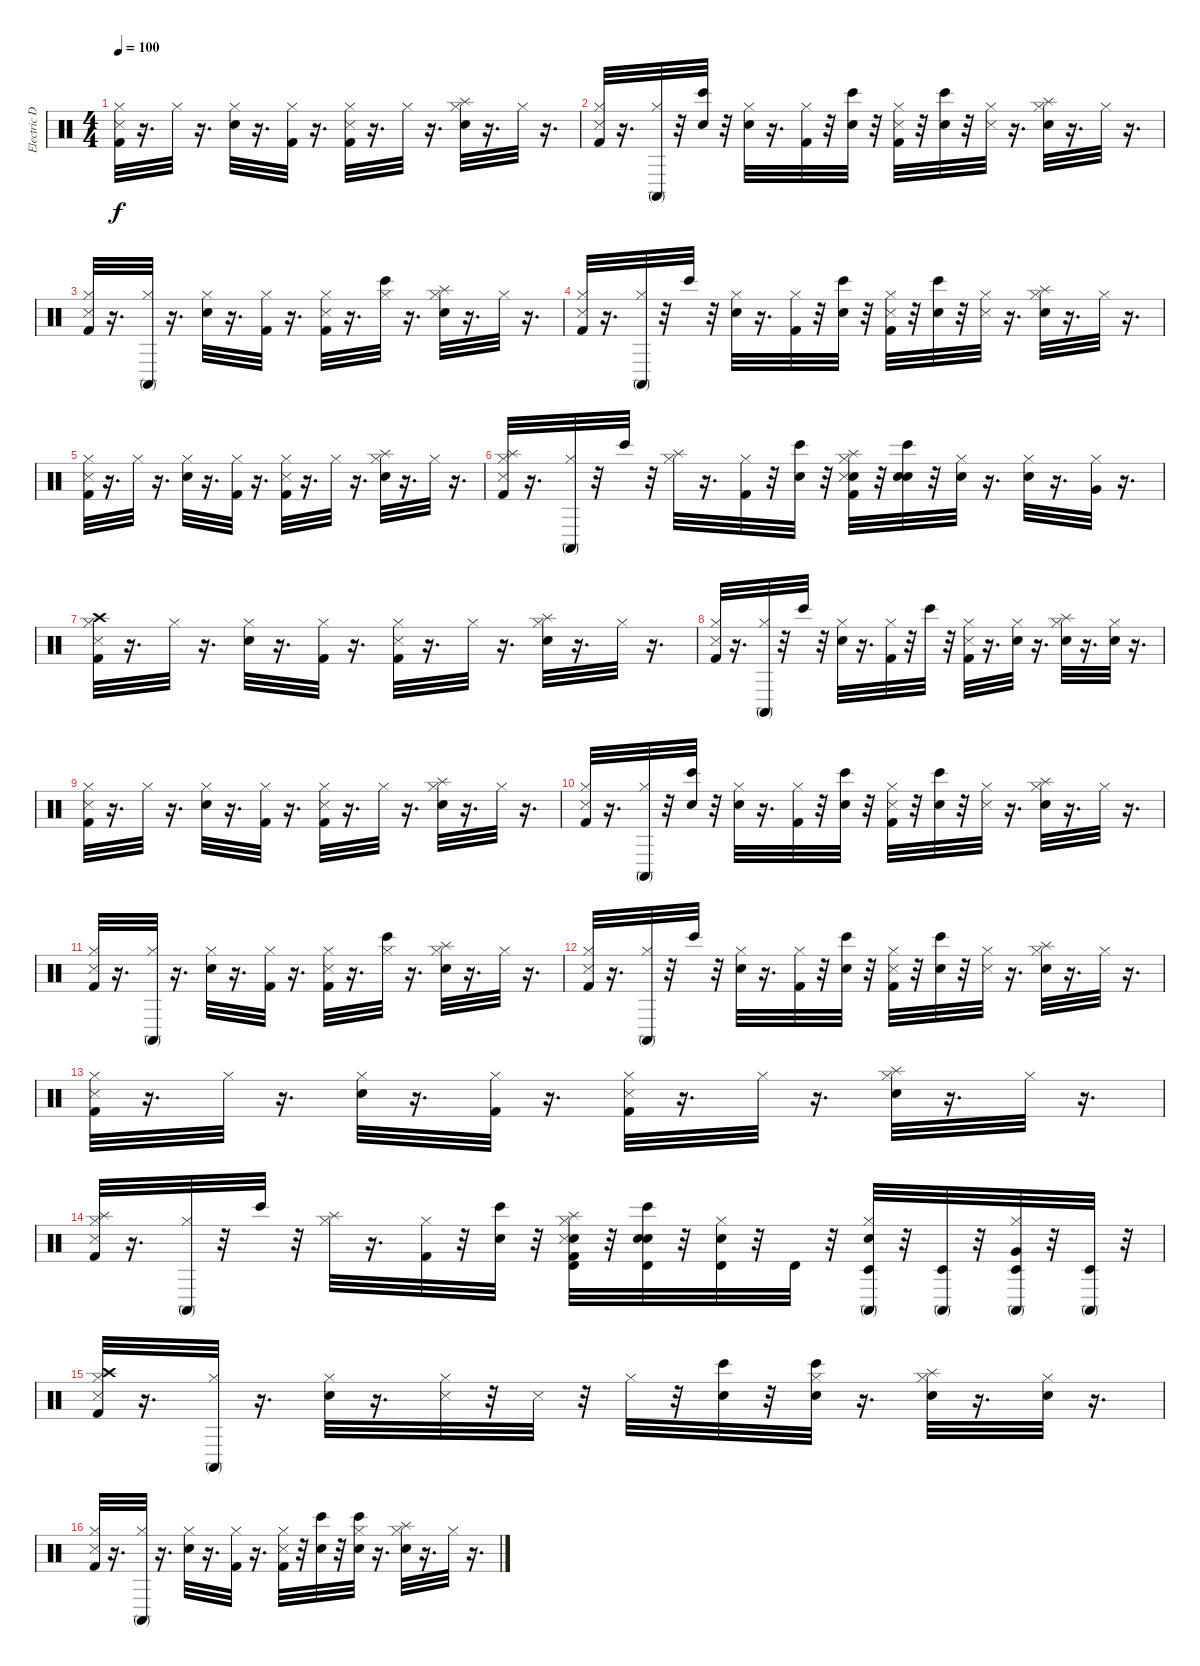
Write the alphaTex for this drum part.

\track ("Electric Drums" "Electric D") {instrument percussion}
\staff {score}
\articulation defaults
\ts (4 4)
\tempo 100
\clef neutral
\ks c
("Kick (hit) 2" "Hi-Hat (closed)" "Metronome (hit)").32{dy f} r.16{d} "Hi-Hat (closed)".32 r.16{d} ("Electric Snare (hit)" "Hi-Hat (closed)").32 r.16{d} ("Kick (hit) 2" "Hi-Hat (closed)").32 r.16{d} ("Kick (hit) 2" "Hi-Hat (closed)" "Metronome (hit)").32 r.16{d} "Hi-Hat (closed)".32 r.16{d} ("Electric Snare (hit)" "Hi-Hat (closed)" "Splash (hit)").32 r.16{d} "Hi-Hat (closed)".32 r.16{d} |
("Kick (hit) 2" "Hi-Hat (closed)" "Metronome (hit)").32 r.16{d} ("Hi-Hat (closed)" "Conga high (mute)").32 r.32 ("Snare (hit)" "Bongo High (hit)").32 r.32 ("Electric Snare (hit)" "Hi-Hat (closed)").32 r.16{d} ("Kick (hit) 2" "Hi-Hat (closed)").32 r.32 ("Snare (hit)" "Bongo High (hit)").32 r.32 ("Kick (hit) 2" "Hi-Hat (closed)" "Metronome (hit)").32 r.32 ("Snare (hit)" "Bongo High (hit)").32 r.32 ("Hi-Hat (closed)" "Metronome (hit)").32 r.16{d} ("Electric Snare (hit)" "Hi-Hat (closed)" "Splash (hit)").32 r.16{d} "Hi-Hat (closed)".32 r.16{d} |
("Kick (hit) 2" "Hi-Hat (closed)" "Metronome (hit)").32 r.16{d} ("Hi-Hat (closed)" "Conga high (mute)").32 r.16{d} ("Electric Snare (hit)" "Hi-Hat (closed)").32 r.16{d} ("Kick (hit) 2" "Hi-Hat (closed)").32 r.16{d} ("Kick (hit) 2" "Hi-Hat (closed)" "Metronome (hit)").32 r.16{d} ("Hi-Hat (closed)" "Bongo High (hit)").32 r.16{d} ("Electric Snare (hit)" "Hi-Hat (closed)" "Splash (hit)").32 r.16{d} "Hi-Hat (closed)".32 r.16{d} |
("Kick (hit) 2" "Hi-Hat (closed)" "Metronome (hit)").32 r.16{d} ("Hi-Hat (closed)" "Conga high (mute)").32 r.32 "Bongo High (hit)".32 r.32 ("Electric Snare (hit)" "Hi-Hat (closed)").32 r.16{d} ("Kick (hit) 2" "Hi-Hat (closed)").32 r.32 ("Snare (hit)" "Bongo High (hit)").32 r.32 ("Kick (hit) 2" "Hi-Hat (closed)" "Metronome (hit)").32 r.32 ("Snare (hit)" "Bongo High (hit)").32 r.32 ("Hi-Hat (closed)" "Metronome (hit)").32 r.16{d} ("Electric Snare (hit)" "Hi-Hat (closed)" "Splash (hit)").32 r.16{d} "Hi-Hat (closed)".32 r.16{d} |
("Kick (hit) 2" "Hi-Hat (closed)" "Metronome (hit)").32 r.16{d} "Hi-Hat (closed)".32 r.16{d} ("Electric Snare (hit)" "Hi-Hat (closed)").32 r.16{d} ("Kick (hit) 2" "Hi-Hat (closed)").32 r.16{d} ("Kick (hit) 2" "Hi-Hat (closed)" "Metronome (hit)").32 r.16{d} "Hi-Hat (closed)".32 r.16{d} ("Electric Snare (hit)" "Hi-Hat (closed)" "Splash (hit)").32 r.16{d} "Hi-Hat (closed)".32 r.16{d} |
("Kick (hit) 2" "Hi-Hat (closed)" "Splash (hit)" "Metronome (hit)").32 r.16{d} ("Hi-Hat (closed)" "Conga high (mute)").32 r.32 "Bongo High (hit)".32 r.32 ("Hi-Hat (closed)" "Splash (hit)").32 r.16{d} ("Kick (hit) 2" "Hi-Hat (closed)").32 r.32 ("Snare (hit)" "Bongo High (hit)").32 r.32 ("Snare (hit) 2" "Kick (hit) 2" "Hi-Hat (closed)" "Splash (hit)" "Metronome (hit)").32 r.32 ("Snare (hit) 2" "Snare (hit)" "Bongo High (hit)").32 r.32 ("Snare (hit) 2" "Hi-Hat (closed)").32 r.16{d} ("Electric Snare (hit)" "Hi-Hat (closed)").32 r.16{d} ("Very Low Tom (hit)" "Hi-Hat (closed)").32 r.16{d} |
("Crash high (hit)" "Kick (hit) 2" "Hi-Hat (closed)" "Metronome (hit)").32 r.16{d} "Hi-Hat (closed)".32 r.16{d} ("Electric Snare (hit)" "Hi-Hat (closed)").32 r.16{d} ("Kick (hit) 2" "Hi-Hat (closed)").32 r.16{d} ("Kick (hit) 2" "Hi-Hat (closed)" "Metronome (hit)").32 r.16{d} "Hi-Hat (closed)".32 r.16{d} ("Electric Snare (hit)" "Hi-Hat (closed)" "Splash (hit)").32 r.16{d} "Hi-Hat (closed)".32 r.16{d} |
("Kick (hit) 2" "Hi-Hat (closed)" "Metronome (hit)").32 r.16{d} ("Hi-Hat (closed)" "Conga high (mute)").32 r.32 "Bongo High (hit)".32 r.32 ("Electric Snare (hit)" "Hi-Hat (closed)").32 r.16{d} ("Kick (hit) 2" "Hi-Hat (closed)").32 r.32 "Bongo High (hit)".32 r.32 ("Kick (hit) 2" "Hi-Hat (closed)" "Metronome (hit)").32 r.16{d} ("Snare (hit) 2" "Hi-Hat (closed)").32 r.16{d} ("Electric Snare (hit)" "Hi-Hat (closed)" "Splash (hit)").32 r.16{d} ("Snare (hit) 2" "Hi-Hat (closed)").32 r.16{d} |
("Kick (hit) 2" "Hi-Hat (closed)" "Metronome (hit)").32 r.16{d} "Hi-Hat (closed)".32 r.16{d} ("Electric Snare (hit)" "Hi-Hat (closed)").32 r.16{d} ("Kick (hit) 2" "Hi-Hat (closed)").32 r.16{d} ("Kick (hit) 2" "Hi-Hat (closed)" "Metronome (hit)").32 r.16{d} "Hi-Hat (closed)".32 r.16{d} ("Electric Snare (hit)" "Hi-Hat (closed)" "Splash (hit)").32 r.16{d} "Hi-Hat (closed)".32 r.16{d} |
("Kick (hit) 2" "Hi-Hat (closed)" "Metronome (hit)").32 r.16{d} ("Hi-Hat (closed)" "Conga high (mute)").32 r.32 ("Snare (hit)" "Bongo High (hit)").32 r.32 ("Electric Snare (hit)" "Hi-Hat (closed)").32 r.16{d} ("Kick (hit) 2" "Hi-Hat (closed)").32 r.32 ("Snare (hit)" "Bongo High (hit)").32 r.32 ("Kick (hit) 2" "Hi-Hat (closed)" "Metronome (hit)").32 r.32 ("Snare (hit)" "Bongo High (hit)").32 r.32 ("Hi-Hat (closed)" "Metronome (hit)").32 r.16{d} ("Electric Snare (hit)" "Hi-Hat (closed)" "Splash (hit)").32 r.16{d} "Hi-Hat (closed)".32 r.16{d} |
("Kick (hit) 2" "Hi-Hat (closed)" "Metronome (hit)").32 r.16{d} ("Hi-Hat (closed)" "Conga high (mute)").32 r.16{d} ("Electric Snare (hit)" "Hi-Hat (closed)").32 r.16{d} ("Kick (hit) 2" "Hi-Hat (closed)").32 r.16{d} ("Kick (hit) 2" "Hi-Hat (closed)" "Metronome (hit)").32 r.16{d} ("Hi-Hat (closed)" "Bongo High (hit)").32 r.16{d} ("Electric Snare (hit)" "Hi-Hat (closed)" "Splash (hit)").32 r.16{d} "Hi-Hat (closed)".32 r.16{d} |
("Kick (hit) 2" "Hi-Hat (closed)" "Metronome (hit)").32 r.16{d} ("Hi-Hat (closed)" "Conga high (mute)").32 r.32 "Bongo High (hit)".32 r.32 ("Electric Snare (hit)" "Hi-Hat (closed)").32 r.16{d} ("Kick (hit) 2" "Hi-Hat (closed)").32 r.32 ("Snare (hit)" "Bongo High (hit)").32 r.32 ("Kick (hit) 2" "Hi-Hat (closed)" "Metronome (hit)").32 r.32 ("Snare (hit)" "Bongo High (hit)").32 r.32 ("Hi-Hat (closed)" "Metronome (hit)").32 r.16{d} ("Electric Snare (hit)" "Hi-Hat (closed)" "Splash (hit)").32 r.16{d} "Hi-Hat (closed)".32 r.16{d} |
("Kick (hit) 2" "Hi-Hat (closed)" "Metronome (hit)").32 r.16{d} "Hi-Hat (closed)".32 r.16{d} ("Electric Snare (hit)" "Hi-Hat (closed)").32 r.16{d} ("Kick (hit) 2" "Hi-Hat (closed)").32 r.16{d} ("Kick (hit) 2" "Hi-Hat (closed)" "Metronome (hit)").32 r.16{d} "Hi-Hat (closed)".32 r.16{d} ("Electric Snare (hit)" "Hi-Hat (closed)" "Splash (hit)").32 r.16{d} "Hi-Hat (closed)".32 r.16{d} |
("Kick (hit) 2" "Hi-Hat (closed)" "Splash (hit)" "Metronome (hit)").32 r.16{d} ("Hi-Hat (closed)" "Conga high (mute)").32 r.32 "Bongo High (hit)".32 r.32 ("Hi-Hat (closed)" "Splash (hit)").32 r.16{d} ("Kick (hit) 2" "Hi-Hat (closed)").32 r.32 ("Snare (hit)" "Bongo High (hit)").32 r.32 ("Snare (hit) 2" "Kick (hit) 2" "Hi-Hat (closed)" "Splash (hit)" "Metronome (hit)" "Timbale high (hit)").32 r.32 ("Snare (hit) 2" "Snare (hit)" "Bongo High (hit)" "Timbale high (hit)").32 r.32 ("Snare (hit) 2" "Hi-Hat (closed)" "Timbale high (hit)").32 r.32 "Timbale high (hit)".32 r.32 ("Electric Snare (hit)" "Hi-Hat (closed)" "Conga high (mute)" "Timbale low (hit)").32 r.32 ("Conga high (mute)" "Timbale low (hit)").32 r.32 ("Very Low Tom (hit)" "Hi-Hat (closed)" "Conga high (mute)" "Timbale low (hit)").32 r.32 ("Conga high (mute)" "Timbale low (hit)").32 r.32 |
("Crash high (hit)" "Kick (hit) 2" "Hi-Hat (closed)" "Metronome (hit)").32 r.16{d} ("Hi-Hat (closed)" "Conga high (mute)").32 r.16{d} ("Electric Snare (hit)" "Hi-Hat (closed)").32 r.16{d} ("Hi-Hat (closed)" "Metronome (hit)").32 r.32 "Metronome (hit)".32 r.32 "Hi-Hat (closed)".32 r.32 ("Snare (hit)" "Bongo High (hit)").32 r.32 ("Snare (hit)" "Hi-Hat (closed)" "Bongo High (hit)").32 r.16{d} ("Electric Snare (hit)" "Hi-Hat (closed)" "Splash (hit)").32 r.16{d} ("Electric Snare (hit)" "Hi-Hat (closed)").32 r.16{d} |
("Kick (hit) 2" "Hi-Hat (closed)" "Metronome (hit)").32 r.16{d} ("Hi-Hat (closed)" "Conga high (mute)").32 r.16{d} ("Electric Snare (hit)" "Hi-Hat (closed)").32 r.16{d} ("Kick (hit) 2" "Hi-Hat (closed)").32 r.16{d} ("Kick (hit) 2" "Hi-Hat (closed)" "Metronome (hit)").32 r.32 ("Snare (hit)" "Bongo High (hit)").32 r.32 ("Snare (hit)" "Hi-Hat (closed)" "Bongo High (hit)").32 r.16{d} ("Electric Snare (hit)" "Hi-Hat (closed)" "Splash (hit)").32 r.16{d} "Hi-Hat (closed)".32 r.16{d}
